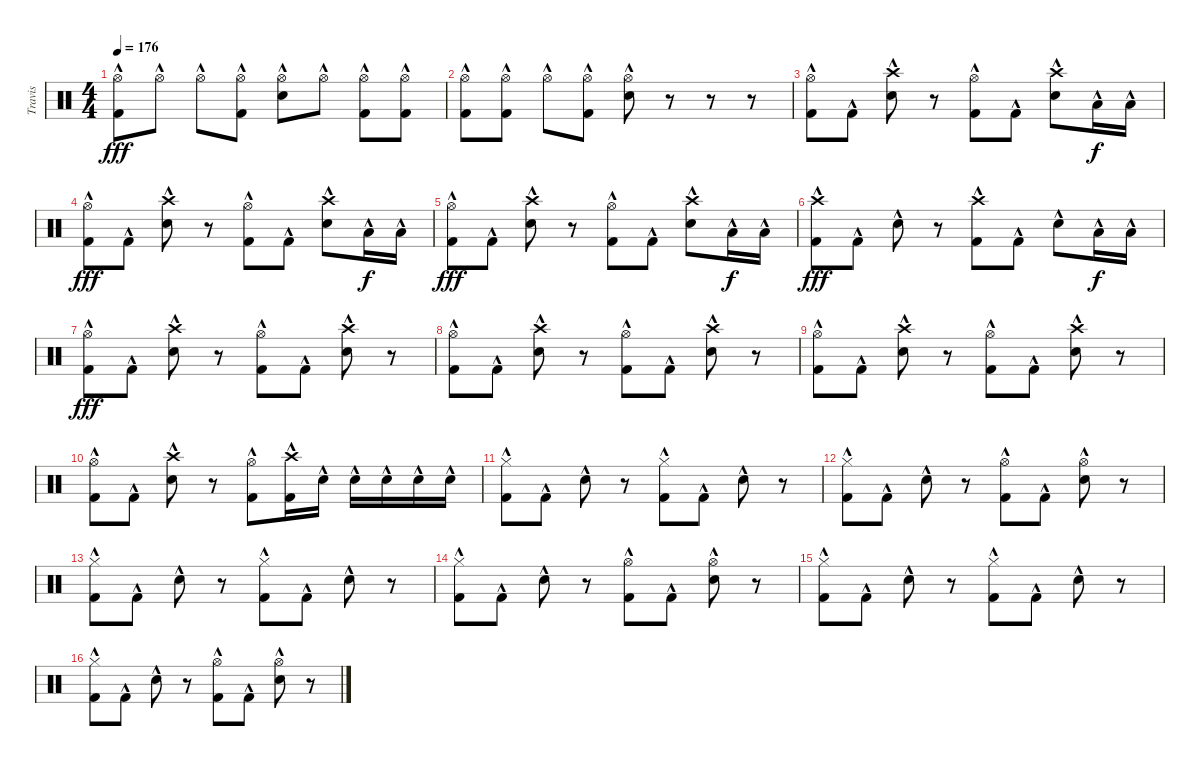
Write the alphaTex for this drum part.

\track ("Travis" "Travis") {instrument percussion}
\staff {score}
\articulation defaults
\ts (4 4)
\tempo 176
\clef neutral
\ks c
("Kick (hit) 2"{hac} "Hi-Hat (open)"{hac}).8{dy fff} "Hi-Hat (open)"{hac}.8 "Hi-Hat (open)"{hac}.8 ("Kick (hit) 2"{hac} "Hi-Hat (open)"{hac}).8 ("Snare (hit) 2"{hac} "Hi-Hat (open)"{hac}).8 "Hi-Hat (open)"{hac}.8 ("Kick (hit) 2"{hac} "Hi-Hat (open)"{hac}).8 ("Kick (hit) 2"{hac} "Hi-Hat (open)"{hac}).8 |
("Kick (hit) 2"{hac} "Hi-Hat (open)"{hac}).8 ("Kick (hit) 2"{hac} "Hi-Hat (open)"{hac}).8 "Hi-Hat (open)"{hac}.8 ("Kick (hit) 2"{hac} "Hi-Hat (open)"{hac}).8 ("Snare (hit) 2"{hac} "Hi-Hat (open)"{hac}).8 r.8 r.8 r.8 |
("Kick (hit) 2"{hac} "Hi-Hat (open)"{hac}).8 "Kick (hit) 2"{hac}.8 ("Snare (hit) 2"{hac} "Crash high (hit)"{hac}).8 r.8 ("Kick (hit) 2"{hac} "Hi-Hat (open)"{hac}).8 "Kick (hit) 2"{hac}.8 ("Snare (hit) 2"{hac} "Crash high (hit)"{hac}).8 "Low Tom (hit)"{hac}.16{dy f} "Low Tom (hit)"{hac}.16 |
("Kick (hit) 2"{hac} "Hi-Hat (open)"{hac}).8{dy fff} "Kick (hit) 2"{hac}.8 ("Snare (hit) 2"{hac} "Crash high (hit)"{hac}).8 r.8 ("Kick (hit) 2"{hac} "Hi-Hat (open)"{hac}).8 "Kick (hit) 2"{hac}.8 ("Snare (hit) 2"{hac} "Crash high (hit)"{hac}).8 "Low Tom (hit)"{hac}.16{dy f} "Low Tom (hit)"{hac}.16 |
("Kick (hit) 2"{hac} "Hi-Hat (open)"{hac}).8{dy fff} "Kick (hit) 2"{hac}.8 ("Snare (hit) 2"{hac} "Crash high (hit)"{hac}).8 r.8 ("Kick (hit) 2"{hac} "Hi-Hat (open)"{hac}).8 "Kick (hit) 2"{hac}.8 ("Snare (hit) 2"{hac} "Crash high (hit)"{hac}).8 "Low Tom (hit)"{hac}.16{dy f} "Low Tom (hit)"{hac}.16 |
("Kick (hit) 2"{hac} "Crash high (hit)"{hac}).8{dy fff} "Kick (hit) 2"{hac}.8 "Snare (hit) 2"{hac}.8 r.8 ("Kick (hit) 2"{hac} "Crash high (hit)"{hac}).8 "Kick (hit) 2"{hac}.8 "Snare (hit) 2"{hac}.8 "Low Tom (hit)"{hac}.16{dy f} "Low Tom (hit)"{hac}.16 |
("Kick (hit) 2"{hac} "Hi-Hat (open)"{hac}).8{dy fff} "Kick (hit) 2"{hac}.8 ("Snare (hit) 2"{hac} "Crash high (hit)"{hac}).8 r.8 ("Kick (hit) 2"{hac} "Hi-Hat (open)"{hac}).8 "Kick (hit) 2"{hac}.8 ("Snare (hit) 2"{hac} "Crash high (hit)"{hac}).8 r.8 |
("Kick (hit) 2"{hac} "Hi-Hat (open)"{hac}).8 "Kick (hit) 2"{hac}.8 ("Snare (hit) 2"{hac} "Crash high (hit)"{hac}).8 r.8 ("Kick (hit) 2"{hac} "Hi-Hat (open)"{hac}).8 "Kick (hit) 2"{hac}.8 ("Snare (hit) 2"{hac} "Crash high (hit)"{hac}).8 r.8 |
("Kick (hit) 2"{hac} "Hi-Hat (open)"{hac}).8 "Kick (hit) 2"{hac}.8 ("Snare (hit) 2"{hac} "Crash high (hit)"{hac}).8 r.8 ("Kick (hit) 2"{hac} "Hi-Hat (open)"{hac}).8 "Kick (hit) 2"{hac}.8 ("Snare (hit) 2"{hac} "Crash high (hit)"{hac}).8 r.8 |
("Kick (hit) 2"{hac} "Hi-Hat (open)"{hac}).8 "Kick (hit) 2"{hac}.8 ("Snare (hit) 2"{hac} "Crash high (hit)"{hac}).8 r.8 ("Kick (hit) 2"{hac} "Hi-Hat (open)"{hac}).8 ("Kick (hit) 2"{hac} "Crash high (hit)"{hac}).16 "Snare (hit) 2"{hac}.16 "Snare (hit) 2"{hac}.16 "Snare (hit) 2"{hac}.16 "Snare (hit) 2"{hac}.16 "Snare (hit) 2"{hac}.16 |
("Kick (hit) 2"{hac} "Hi-Hat (closed)"{hac}).8 "Kick (hit) 2"{hac}.8 "Snare (hit) 2"{hac}.8 r.8 ("Kick (hit) 2"{hac} "Hi-Hat (closed)"{hac}).8 "Kick (hit) 2"{hac}.8 "Snare (hit) 2"{hac}.8 r.8 |
("Kick (hit) 2"{hac} "Hi-Hat (closed)"{hac}).8 "Kick (hit) 2"{hac}.8 "Snare (hit) 2"{hac}.8 r.8 ("Kick (hit) 2"{hac} "Hi-Hat (open)"{hac}).8 "Kick (hit) 2"{hac}.8 ("Snare (hit) 2"{hac} "Hi-Hat (open)"{hac}).8 r.8 |
("Kick (hit) 2"{hac} "Hi-Hat (closed)"{hac}).8 "Kick (hit) 2"{hac}.8 "Snare (hit) 2"{hac}.8 r.8 ("Kick (hit) 2"{hac} "Hi-Hat (closed)"{hac}).8 "Kick (hit) 2"{hac}.8 "Snare (hit) 2"{hac}.8 r.8 |
("Kick (hit) 2"{hac} "Hi-Hat (closed)"{hac}).8 "Kick (hit) 2"{hac}.8 "Snare (hit) 2"{hac}.8 r.8 ("Kick (hit) 2"{hac} "Hi-Hat (open)"{hac}).8 "Kick (hit) 2"{hac}.8 ("Snare (hit) 2"{hac} "Hi-Hat (open)"{hac}).8 r.8 |
("Kick (hit) 2"{hac} "Hi-Hat (closed)"{hac}).8 "Kick (hit) 2"{hac}.8 "Snare (hit) 2"{hac}.8 r.8 ("Kick (hit) 2"{hac} "Hi-Hat (closed)"{hac}).8 "Kick (hit) 2"{hac}.8 "Snare (hit) 2"{hac}.8 r.8 |
("Kick (hit) 2"{hac} "Hi-Hat (closed)"{hac}).8 "Kick (hit) 2"{hac}.8 "Snare (hit) 2"{hac}.8 r.8 ("Kick (hit) 2"{hac} "Hi-Hat (open)"{hac}).8 "Kick (hit) 2"{hac}.8 ("Snare (hit) 2"{hac} "Hi-Hat (open)"{hac}).8 r.8
